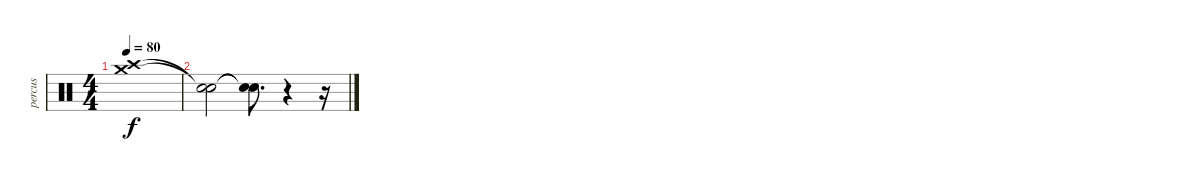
\track ("percus" "percus") {instrument percussion}
\staff {score}
\articulation defaults
\ts (4 4)
\tempo 80
\clef neutral
\ks c
("Crash high (hit)" "Crash medium (hit)").1{dy f} |
("Snare (hit)"{t} "Snare (hit)"{t}).2 ("Snare (hit)"{t} "Snare (hit)"{t}).8{d} r.4 r.16
